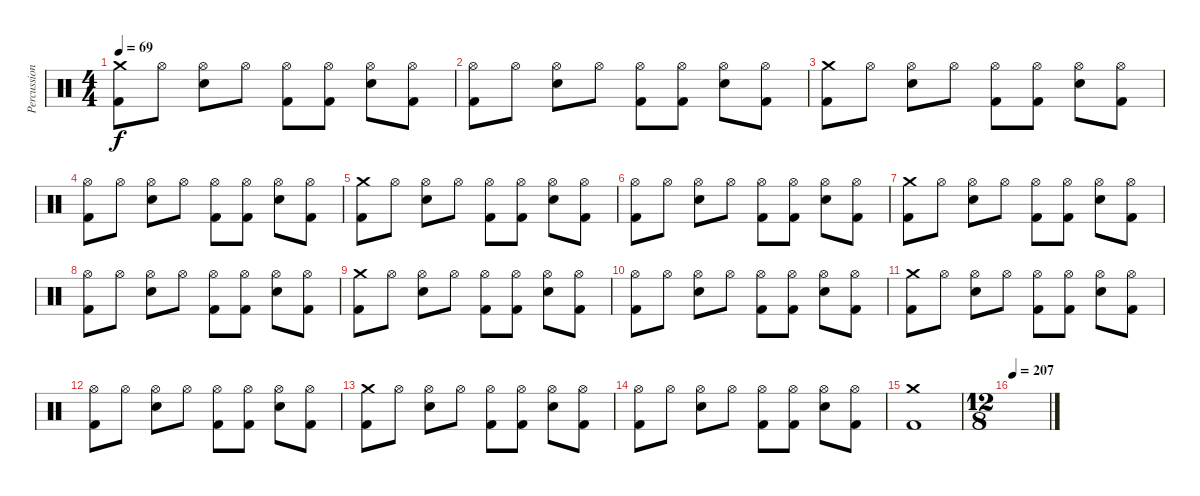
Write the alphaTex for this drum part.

\track ("Percussion" "Percussion") {instrument percussion}
\staff {score}
\articulation defaults
\ts (4 4)
\tempo 69
\clef neutral
\ks c
("Crash medium (hit)" "Kick (hit) 2").8{dy f} "Hi-Hat (open)".8 ("Hi-Hat (open)" "Electric Snare (hit)").8 "Hi-Hat (open)".8 ("Hi-Hat (open)" "Kick (hit) 2").8 ("Hi-Hat (open)" "Kick (hit) 2").8 ("Hi-Hat (open)" "Electric Snare (hit)").8 ("Hi-Hat (open)" "Kick (hit) 2").8 |
("Hi-Hat (open)" "Kick (hit) 2").8 "Hi-Hat (open)".8 ("Hi-Hat (open)" "Electric Snare (hit)").8 "Hi-Hat (open)".8 ("Hi-Hat (open)" "Kick (hit) 2").8 ("Hi-Hat (open)" "Kick (hit) 2").8 ("Hi-Hat (open)" "Electric Snare (hit)").8 ("Hi-Hat (open)" "Kick (hit) 2").8 |
("Crash medium (hit)" "Kick (hit) 2").8 "Hi-Hat (open)".8 ("Hi-Hat (open)" "Electric Snare (hit)").8 "Hi-Hat (open)".8 ("Hi-Hat (open)" "Kick (hit) 2").8 ("Hi-Hat (open)" "Kick (hit) 2").8 ("Hi-Hat (open)" "Electric Snare (hit)").8 ("Hi-Hat (open)" "Kick (hit) 2").8 |
("Hi-Hat (open)" "Kick (hit) 2").8 "Hi-Hat (open)".8 ("Hi-Hat (open)" "Electric Snare (hit)").8 "Hi-Hat (open)".8 ("Hi-Hat (open)" "Kick (hit) 2").8 ("Hi-Hat (open)" "Kick (hit) 2").8 ("Hi-Hat (open)" "Electric Snare (hit)").8 ("Hi-Hat (open)" "Kick (hit) 2").8 |
("Crash medium (hit)" "Kick (hit) 2").8 "Hi-Hat (open)".8 ("Hi-Hat (open)" "Electric Snare (hit)").8 "Hi-Hat (open)".8 ("Hi-Hat (open)" "Kick (hit) 2").8 ("Hi-Hat (open)" "Kick (hit) 2").8 ("Hi-Hat (open)" "Electric Snare (hit)").8 ("Hi-Hat (open)" "Kick (hit) 2").8 |
("Hi-Hat (open)" "Kick (hit) 2").8 "Hi-Hat (open)".8 ("Hi-Hat (open)" "Electric Snare (hit)").8 "Hi-Hat (open)".8 ("Hi-Hat (open)" "Kick (hit) 2").8 ("Hi-Hat (open)" "Kick (hit) 2").8 ("Hi-Hat (open)" "Electric Snare (hit)").8 ("Hi-Hat (open)" "Kick (hit) 2").8 |
("Crash medium (hit)" "Kick (hit) 2").8 "Hi-Hat (open)".8 ("Hi-Hat (open)" "Electric Snare (hit)").8 "Hi-Hat (open)".8 ("Hi-Hat (open)" "Kick (hit) 2").8 ("Hi-Hat (open)" "Kick (hit) 2").8 ("Hi-Hat (open)" "Electric Snare (hit)").8 ("Hi-Hat (open)" "Kick (hit) 2").8 |
("Hi-Hat (open)" "Kick (hit) 2").8 "Hi-Hat (open)".8 ("Hi-Hat (open)" "Electric Snare (hit)").8 "Hi-Hat (open)".8 ("Hi-Hat (open)" "Kick (hit) 2").8 ("Hi-Hat (open)" "Kick (hit) 2").8 ("Hi-Hat (open)" "Electric Snare (hit)").8 ("Hi-Hat (open)" "Kick (hit) 2").8 |
("Crash medium (hit)" "Kick (hit) 2").8 "Hi-Hat (open)".8 ("Hi-Hat (open)" "Electric Snare (hit)").8 "Hi-Hat (open)".8 ("Hi-Hat (open)" "Kick (hit) 2").8 ("Hi-Hat (open)" "Kick (hit) 2").8 ("Hi-Hat (open)" "Electric Snare (hit)").8 ("Hi-Hat (open)" "Kick (hit) 2").8 |
("Hi-Hat (open)" "Kick (hit) 2").8 "Hi-Hat (open)".8 ("Hi-Hat (open)" "Electric Snare (hit)").8 "Hi-Hat (open)".8 ("Hi-Hat (open)" "Kick (hit) 2").8 ("Hi-Hat (open)" "Kick (hit) 2").8 ("Hi-Hat (open)" "Electric Snare (hit)").8 ("Hi-Hat (open)" "Kick (hit) 2").8 |
("Crash medium (hit)" "Kick (hit) 2").8 "Hi-Hat (open)".8 ("Hi-Hat (open)" "Electric Snare (hit)").8 "Hi-Hat (open)".8 ("Hi-Hat (open)" "Kick (hit) 2").8 ("Hi-Hat (open)" "Kick (hit) 2").8 ("Hi-Hat (open)" "Electric Snare (hit)").8 ("Hi-Hat (open)" "Kick (hit) 2").8 |
("Hi-Hat (open)" "Kick (hit) 2").8 "Hi-Hat (open)".8 ("Hi-Hat (open)" "Electric Snare (hit)").8 "Hi-Hat (open)".8 ("Hi-Hat (open)" "Kick (hit) 2").8 ("Hi-Hat (open)" "Kick (hit) 2").8 ("Hi-Hat (open)" "Electric Snare (hit)").8 ("Hi-Hat (open)" "Kick (hit) 2").8 |
("Crash medium (hit)" "Kick (hit) 2").8 "Hi-Hat (open)".8 ("Hi-Hat (open)" "Electric Snare (hit)").8 "Hi-Hat (open)".8 ("Hi-Hat (open)" "Kick (hit) 2").8 ("Hi-Hat (open)" "Kick (hit) 2").8 ("Hi-Hat (open)" "Electric Snare (hit)").8 ("Hi-Hat (open)" "Kick (hit) 2").8 |
("Hi-Hat (open)" "Kick (hit) 2").8 "Hi-Hat (open)".8 ("Hi-Hat (open)" "Electric Snare (hit)").8 "Hi-Hat (open)".8 ("Hi-Hat (open)" "Kick (hit) 2").8 ("Hi-Hat (open)" "Kick (hit) 2").8 ("Hi-Hat (open)" "Electric Snare (hit)").8 ("Hi-Hat (open)" "Kick (hit) 2").8 |
("Crash medium (hit)" "Kick (hit) 2").1 |
\ts (12 8)
\tempo 207
